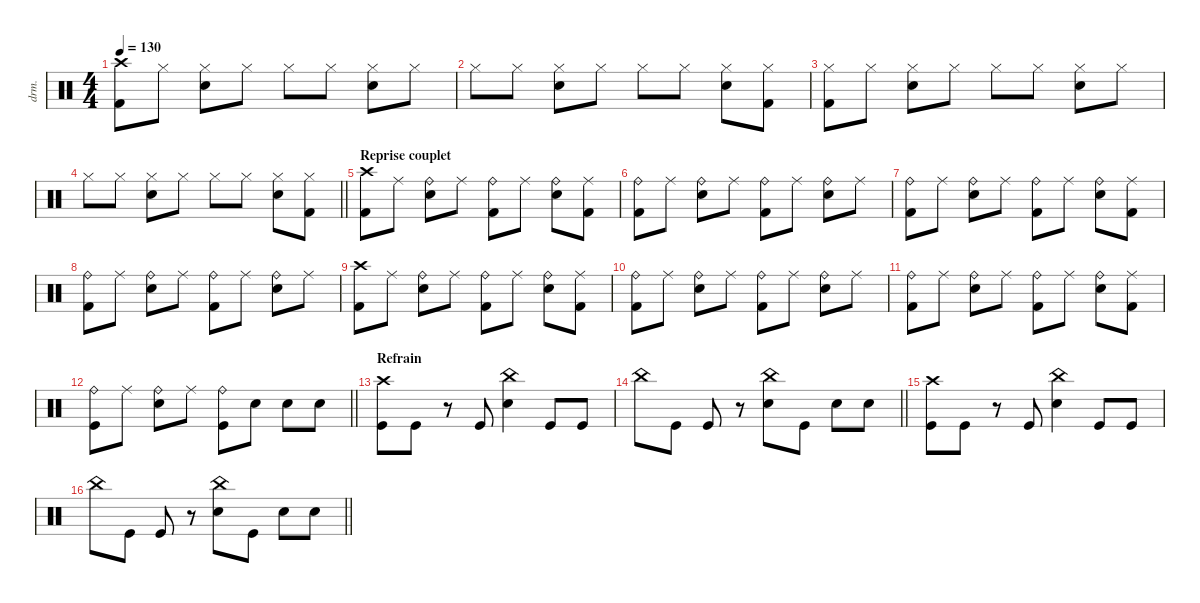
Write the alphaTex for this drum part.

\defaultSystemsLayout 4
\hideDynamics
\bracketExtendMode nobrackets
\track ("Manouche" "drm.") {instrument percussion}
\staff {score}
\articulation defaults
\ts (4 4)
\tempo 130
\clef neutral
\ks c
("Crash high (hit)" "Kick (hit) 2").8{dy f} "Hi-Hat (closed)".8{dy mp} ("Hi-Hat (closed)" "Snare (hit) 2").8{dy f} "Hi-Hat (closed)".8{dy mp} "Hi-Hat (closed)".8{dy f} "Hi-Hat (closed)".8{dy mp} ("Hi-Hat (closed)" "Snare (hit) 2").8{dy f} "Hi-Hat (closed)".8{dy mp} |
"Hi-Hat (closed)".8{dy f} "Hi-Hat (closed)".8{dy mp} ("Hi-Hat (closed)" "Snare (hit) 2").8{dy f} "Hi-Hat (closed)".8{dy mp} "Hi-Hat (closed)".8{dy f} "Hi-Hat (closed)".8{dy mp} ("Hi-Hat (closed)" "Snare (hit) 2").8{dy f} ("Hi-Hat (closed)" "Kick (hit) 2").8{dy mp} |
("Hi-Hat (closed)" "Kick (hit) 2").8 "Hi-Hat (closed)".8 ("Hi-Hat (closed)" "Snare (hit) 2").8{dy f} "Hi-Hat (closed)".8{dy mp} "Hi-Hat (closed)".8{dy f} "Hi-Hat (closed)".8{dy mp} ("Hi-Hat (closed)" "Snare (hit) 2").8{dy f} "Hi-Hat (closed)".8{dy mp} |
\barLineRight lightlight "Hi-Hat (closed)".8{dy f} "Hi-Hat (closed)".8{dy mp}
("Hi-Hat (closed)" "Snare (hit) 2").8{dy f} "Hi-Hat (closed)".8{dy mp} "Hi-Hat (closed)".8{dy f} "Hi-Hat (closed)".8{dy mp} ("Hi-Hat (closed)" "Snare (hit) 2").8{dy f} ("Hi-Hat (closed)" "Kick (hit) 2").8{dy mp} |
\section ("" "Reprise couplet")
("Crash high (hit)" "Kick (hit) 2").8{dy f} "Ride (middle)".8{dy mf} ("Ride (bell)" "Snare (hit) 2").8{dy f} "Ride (middle)".8{dy mf} ("Ride (bell)" "Kick (hit) 2").8{dy f} "Ride (middle)".8{dy mf} ("Ride (bell)" "Snare (hit) 2").8{dy f} ("Ride (middle)" "Kick (hit) 2").8{dy mf} |
("Ride (bell)" "Kick (hit) 2").8{dy f} "Ride (middle)".8{dy mf} ("Ride (bell)" "Snare (hit) 2").8{dy f} "Ride (middle)".8{dy mf} ("Ride (bell)" "Kick (hit) 2").8{dy f} "Ride (middle)".8{dy mf} ("Ride (bell)" "Snare (hit) 2").8{dy f} "Ride (middle)".8{dy mf} |
("Ride (bell)" "Kick (hit) 2").8{dy f} "Ride (middle)".8{dy mf} ("Ride (bell)" "Snare (hit) 2").8{dy f} "Ride (middle)".8{dy mf} ("Ride (bell)" "Kick (hit) 2").8{dy f} "Ride (middle)".8{dy mf} ("Ride (bell)" "Snare (hit) 2").8{dy f} ("Ride (middle)" "Kick (hit) 2").8{dy mf} |
("Ride (bell)" "Kick (hit) 2").8{dy f} "Ride (middle)".8{dy mf} ("Ride (bell)" "Snare (hit) 2").8{dy f} "Ride (middle)".8{dy mf} ("Ride (bell)" "Kick (hit) 2").8{dy f} "Ride (middle)".8{dy mf} ("Ride (bell)" "Snare (hit) 2").8{dy f} "Ride (middle)".8{dy mf} |
("Crash high (hit)" "Kick (hit) 2").8{dy f} "Ride (middle)".8{dy mf} ("Ride (bell)" "Snare (hit) 2").8{dy f} "Ride (middle)".8{dy mf} ("Ride (bell)" "Kick (hit) 2").8{dy f} "Ride (middle)".8{dy mf} ("Ride (bell)" "Snare (hit) 2").8{dy f} ("Ride (middle)" "Kick (hit) 2").8{dy mf} |
("Ride (bell)" "Kick (hit) 2").8{dy f} "Ride (middle)".8{dy mf} ("Ride (bell)" "Snare (hit) 2").8{dy f} "Ride (middle)".8{dy mf} ("Ride (bell)" "Kick (hit) 2").8{dy f} "Ride (middle)".8{dy mf} ("Ride (bell)" "Snare (hit) 2").8{dy f} "Ride (middle)".8{dy mf} |
("Ride (bell)" "Kick (hit) 2").8{dy f} "Ride (middle)".8{dy mf} ("Ride (bell)" "Snare (hit) 2").8{dy f} "Ride (middle)".8{dy mf} ("Ride (bell)" "Kick (hit) 2").8{dy f} "Ride (middle)".8{dy mf} ("Ride (bell)" "Snare (hit) 2").8{dy f} ("Ride (middle)" "Kick (hit) 2").8{dy mf} |
\barLineRight lightlight
("Ride (bell)" "Kick (hit)").8{dy f} "Ride (middle)".8{dy mf} ("Ride (bell)" "Snare (hit) 2").8{dy f} "Ride (middle)".8{dy mf} ("Ride (bell)" "Kick (hit)").8{dy f} "Snare (hit) 2".8 "Snare (hit) 2".8 "Snare (hit) 2".8 |
\section ("" "Refrain")
("Crash high (hit)" "Kick (hit)").8 "Kick (hit)".8 r.8 "Kick (hit)".8 ("China (hit)" "Snare (hit) 2").4 "Kick (hit)".8 "Kick (hit)".8 |
\barLineRight lightlight "China (hit)".8 "Kick (hit)".8 "Kick (hit)".8
r.8 ("China (hit)" "Snare (hit) 2").8 "Kick (hit)".8 "Snare (hit) 2".8 "Snare (hit) 2".8 |
("Crash high (hit)" "Kick (hit)").8 "Kick (hit)".8 r.8 "Kick (hit)".8 ("China (hit)" "Snare (hit) 2").4 "Kick (hit)".8 "Kick (hit)".8 |
\barLineRight lightlight "China (hit)".8 "Kick (hit)".8 "Kick (hit)".8
r.8 ("China (hit)" "Snare (hit) 2").8 "Kick (hit)".8 "Snare (hit) 2".8 "Snare (hit) 2".8
